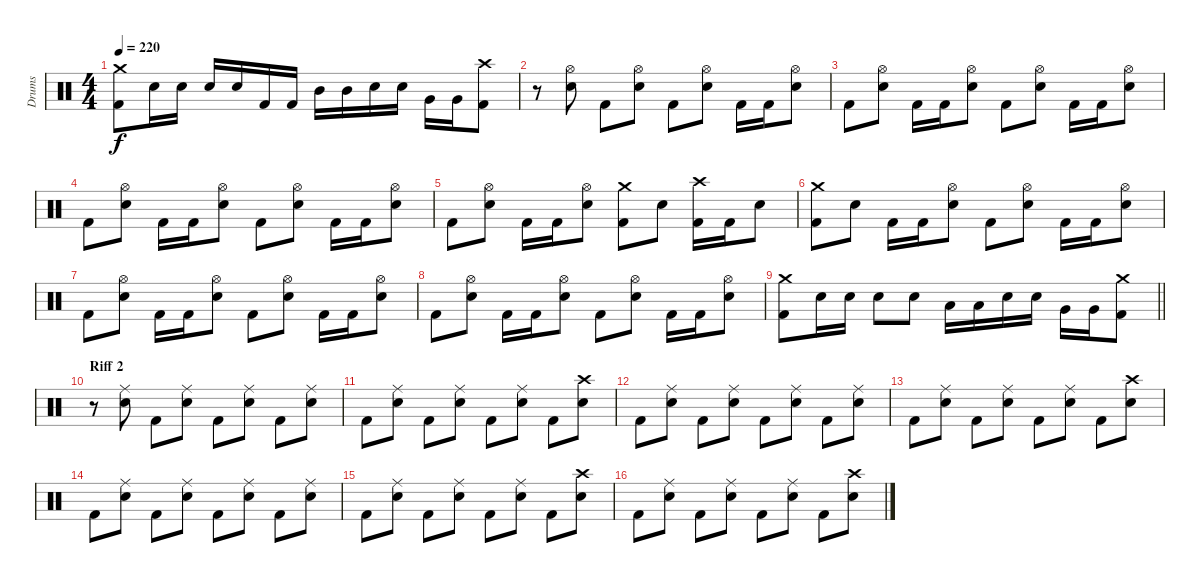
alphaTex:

\track ("Drums" "Drums") {instrument percussion}
\staff {score}
\articulation defaults
\ts (4 4)
\tempo 220
\clef neutral
\ks c
("Crash medium (hit)" "Kick (hit) 2").8{dy f} "Electric Snare (hit)".16 "Electric Snare (hit)".16 "Electric Snare (hit)".16 "Electric Snare (hit)".16 "Kick (hit) 2".16 "Kick (hit) 2".16 "Mid Tom (hit)".16 "Mid Tom (hit)".16 "Electric Snare (hit)".16 "Electric Snare (hit)".16 "Very Low Tom (hit)".16 "Very Low Tom (hit)".16 ("Crash high (hit)" "Kick (hit) 2").8 |
r.8 ("Electric Snare (hit)" "Hi-Hat (open)").8 "Kick (hit) 2".8 ("Electric Snare (hit)" "Hi-Hat (open)").8 "Kick (hit) 2".8 ("Electric Snare (hit)" "Hi-Hat (open)").8 "Kick (hit) 2".16 "Kick (hit) 2".16 ("Electric Snare (hit)" "Hi-Hat (open)").8 |
"Kick (hit) 2".8 ("Electric Snare (hit)" "Hi-Hat (open)").8 "Kick (hit) 2".16 "Kick (hit) 2".16 ("Electric Snare (hit)" "Hi-Hat (open)").8 "Kick (hit) 2".8 ("Electric Snare (hit)" "Hi-Hat (open)").8 "Kick (hit) 2".16 "Kick (hit) 2".16 ("Electric Snare (hit)" "Hi-Hat (open)").8 |
"Kick (hit) 2".8 ("Electric Snare (hit)" "Hi-Hat (open)").8 "Kick (hit) 2".16 "Kick (hit) 2".16 ("Electric Snare (hit)" "Hi-Hat (open)").8 "Kick (hit) 2".8 ("Electric Snare (hit)" "Hi-Hat (open)").8 "Kick (hit) 2".16 "Kick (hit) 2".16 ("Electric Snare (hit)" "Hi-Hat (open)").8 |
"Kick (hit) 2".8 ("Electric Snare (hit)" "Hi-Hat (open)").8 "Kick (hit) 2".16 "Kick (hit) 2".16 ("Electric Snare (hit)" "Hi-Hat (open)").8 ("Kick (hit) 2" "Crash medium (hit)").8 "Electric Snare (hit)".8 ("Kick (hit) 2" "Crash high (hit)").16 "Kick (hit) 2".16 "Electric Snare (hit)".8 |
("Kick (hit) 2" "Crash medium (hit)").8 "Electric Snare (hit)".8 "Kick (hit) 2".16 "Kick (hit) 2".16 ("Electric Snare (hit)" "Hi-Hat (open)").8 "Kick (hit) 2".8 ("Electric Snare (hit)" "Hi-Hat (open)").8 "Kick (hit) 2".16 "Kick (hit) 2".16 ("Electric Snare (hit)" "Hi-Hat (open)").8 |
"Kick (hit) 2".8 ("Electric Snare (hit)" "Hi-Hat (open)").8 "Kick (hit) 2".16 "Kick (hit) 2".16 ("Electric Snare (hit)" "Hi-Hat (open)").8 "Kick (hit) 2".8 ("Electric Snare (hit)" "Hi-Hat (open)").8 "Kick (hit) 2".16 "Kick (hit) 2".16 ("Electric Snare (hit)" "Hi-Hat (open)").8 |
"Kick (hit) 2".8 ("Electric Snare (hit)" "Hi-Hat (open)").8 "Kick (hit) 2".16 "Kick (hit) 2".16 ("Electric Snare (hit)" "Hi-Hat (open)").8 "Kick (hit) 2".8 ("Electric Snare (hit)" "Hi-Hat (open)").8 "Kick (hit) 2".16 "Kick (hit) 2".16 ("Electric Snare (hit)" "Hi-Hat (open)").8 |
\barLineRight lightlight
("Crash medium (hit)" "Kick (hit) 2").8 "Electric Snare (hit)".16 "Electric Snare (hit)".16 "Electric Snare (hit)".8 "Electric Snare (hit)".8 "Low Tom (hit)".16 "Low Tom (hit)".16 "Electric Snare (hit)".16 "Electric Snare (hit)".16 "Very Low Tom (hit)".16 "Very Low Tom (hit)".16 ("Crash medium (hit)" "Kick (hit) 2").8 |
\section ("" "Riff 2")
r.8 ("Ride (middle)" "Electric Snare (hit)").8 "Kick (hit) 2".8 ("Ride (middle)" "Electric Snare (hit)").8 "Kick (hit) 2".8 ("Ride (middle)" "Electric Snare (hit)").8 "Kick (hit) 2".8 ("Ride (middle)" "Electric Snare (hit)").8 |
"Kick (hit) 2".8 ("Ride (middle)" "Electric Snare (hit)").8 "Kick (hit) 2".8 ("Ride (middle)" "Electric Snare (hit)").8 "Kick (hit) 2".8 ("Ride (middle)" "Electric Snare (hit)").8 "Kick (hit) 2".8 ("Crash high (hit)" "Electric Snare (hit)").8 |
"Kick (hit) 2".8 ("Ride (middle)" "Electric Snare (hit)").8 "Kick (hit) 2".8 ("Ride (middle)" "Electric Snare (hit)").8 "Kick (hit) 2".8 ("Ride (middle)" "Electric Snare (hit)").8 "Kick (hit) 2".8 ("Ride (middle)" "Electric Snare (hit)").8 |
"Kick (hit) 2".8 ("Ride (middle)" "Electric Snare (hit)").8 "Kick (hit) 2".8 ("Ride (middle)" "Electric Snare (hit)").8 "Kick (hit) 2".8 ("Ride (middle)" "Electric Snare (hit)").8 "Kick (hit) 2".8 ("Crash high (hit)" "Electric Snare (hit)").8 |
"Kick (hit) 2".8 ("Ride (middle)" "Electric Snare (hit)").8 "Kick (hit) 2".8 ("Ride (middle)" "Electric Snare (hit)").8 "Kick (hit) 2".8 ("Ride (middle)" "Electric Snare (hit)").8 "Kick (hit) 2".8 ("Ride (middle)" "Electric Snare (hit)").8 |
"Kick (hit) 2".8 ("Ride (middle)" "Electric Snare (hit)").8 "Kick (hit) 2".8 ("Ride (middle)" "Electric Snare (hit)").8 "Kick (hit) 2".8 ("Ride (middle)" "Electric Snare (hit)").8 "Kick (hit) 2".8 ("Crash high (hit)" "Electric Snare (hit)").8 |
"Kick (hit) 2".8 ("Ride (middle)" "Electric Snare (hit)").8 "Kick (hit) 2".8 ("Ride (middle)" "Electric Snare (hit)").8 "Kick (hit) 2".8 ("Ride (middle)" "Electric Snare (hit)").8 "Kick (hit) 2".8 ("Crash high (hit)" "Electric Snare (hit)").8
